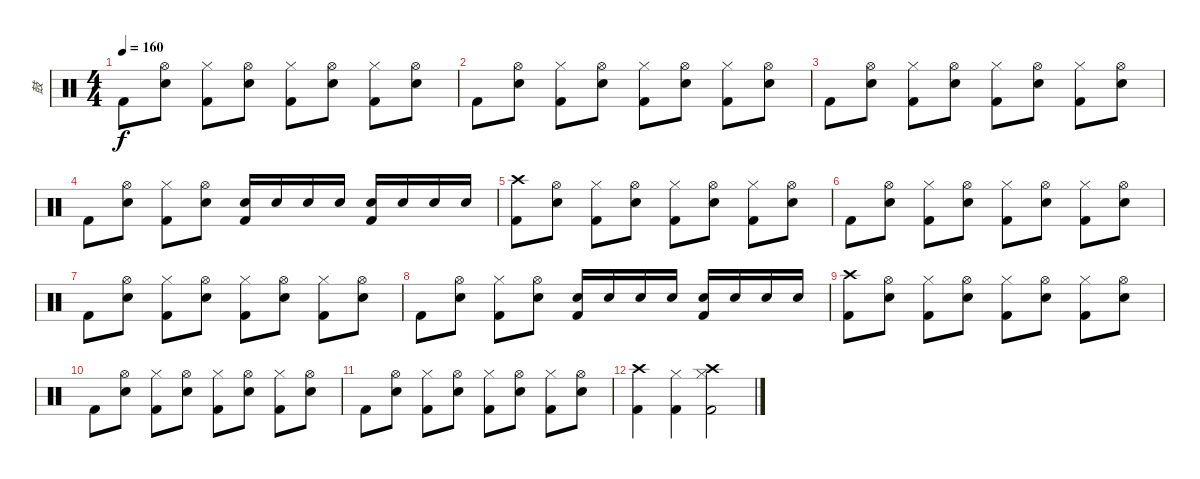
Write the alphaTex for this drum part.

\track ("鼓" "鼓") {instrument percussion}
\staff {score}
\articulation defaults
\ts (4 4)
\tempo 160
\clef neutral
\ks c "Kick (hit) 2".8{dy f}
("Hi-Hat (open)" "Electric Snare (hit)").8 ("Hi-Hat (closed)" "Kick (hit) 2").8 ("Hi-Hat (open)" "Electric Snare (hit)").8 ("Hi-Hat (closed)" "Kick (hit) 2").8 ("Hi-Hat (open)" "Electric Snare (hit)").8 ("Hi-Hat (closed)" "Kick (hit) 2").8 ("Hi-Hat (open)" "Electric Snare (hit)").8 |
"Kick (hit) 2".8 ("Hi-Hat (open)" "Electric Snare (hit)").8 ("Hi-Hat (closed)" "Kick (hit) 2").8 ("Hi-Hat (open)" "Electric Snare (hit)").8 ("Hi-Hat (closed)" "Kick (hit) 2").8 ("Hi-Hat (open)" "Electric Snare (hit)").8 ("Hi-Hat (closed)" "Kick (hit) 2").8 ("Hi-Hat (open)" "Electric Snare (hit)").8 |
"Kick (hit) 2".8 ("Hi-Hat (open)" "Electric Snare (hit)").8 ("Hi-Hat (closed)" "Kick (hit) 2").8 ("Hi-Hat (open)" "Electric Snare (hit)").8 ("Hi-Hat (closed)" "Kick (hit) 2").8 ("Hi-Hat (open)" "Electric Snare (hit)").8 ("Hi-Hat (closed)" "Kick (hit) 2").8 ("Hi-Hat (open)" "Electric Snare (hit)").8 |
"Kick (hit) 2".8 ("Hi-Hat (open)" "Electric Snare (hit)").8 ("Hi-Hat (closed)" "Kick (hit) 2").8 ("Hi-Hat (open)" "Electric Snare (hit)").8 ("Electric Snare (hit)" "Kick (hit) 2").16 "Electric Snare (hit)".16 "Electric Snare (hit)".16 "Electric Snare (hit)".16 ("Electric Snare (hit)" "Kick (hit) 2").16 "Electric Snare (hit)".16 "Electric Snare (hit)".16 "Electric Snare (hit)".16 |
("Crash high (hit)" "Kick (hit) 2").8 ("Hi-Hat (open)" "Electric Snare (hit)").8 ("Hi-Hat (closed)" "Kick (hit) 2").8 ("Hi-Hat (open)" "Electric Snare (hit)").8 ("Hi-Hat (closed)" "Kick (hit) 2").8 ("Hi-Hat (open)" "Electric Snare (hit)").8 ("Hi-Hat (closed)" "Kick (hit) 2").8 ("Hi-Hat (open)" "Electric Snare (hit)").8 |
"Kick (hit) 2".8 ("Hi-Hat (open)" "Electric Snare (hit)").8 ("Hi-Hat (closed)" "Kick (hit) 2").8 ("Hi-Hat (open)" "Electric Snare (hit)").8 ("Hi-Hat (closed)" "Kick (hit) 2").8 ("Hi-Hat (open)" "Electric Snare (hit)").8 ("Hi-Hat (closed)" "Kick (hit) 2").8 ("Hi-Hat (open)" "Electric Snare (hit)").8 |
"Kick (hit) 2".8 ("Hi-Hat (open)" "Electric Snare (hit)").8 ("Hi-Hat (closed)" "Kick (hit) 2").8 ("Hi-Hat (open)" "Electric Snare (hit)").8 ("Hi-Hat (closed)" "Kick (hit) 2").8 ("Hi-Hat (open)" "Electric Snare (hit)").8 ("Hi-Hat (closed)" "Kick (hit) 2").8 ("Hi-Hat (open)" "Electric Snare (hit)").8 |
"Kick (hit) 2".8 ("Hi-Hat (open)" "Electric Snare (hit)").8 ("Hi-Hat (closed)" "Kick (hit) 2").8 ("Hi-Hat (open)" "Electric Snare (hit)").8 ("Electric Snare (hit)" "Kick (hit) 2").16 "Electric Snare (hit)".16 "Electric Snare (hit)".16 "Electric Snare (hit)".16 ("Electric Snare (hit)" "Kick (hit) 2").16 "Electric Snare (hit)".16 "Electric Snare (hit)".16 "Electric Snare (hit)".16 |
("Crash high (hit)" "Kick (hit) 2").8 ("Hi-Hat (open)" "Electric Snare (hit)").8 ("Hi-Hat (closed)" "Kick (hit) 2").8 ("Hi-Hat (open)" "Electric Snare (hit)").8 ("Hi-Hat (closed)" "Kick (hit) 2").8 ("Hi-Hat (open)" "Electric Snare (hit)").8 ("Hi-Hat (closed)" "Kick (hit) 2").8 ("Hi-Hat (open)" "Electric Snare (hit)").8 |
"Kick (hit) 2".8 ("Hi-Hat (open)" "Electric Snare (hit)").8 ("Hi-Hat (closed)" "Kick (hit) 2").8 ("Hi-Hat (open)" "Electric Snare (hit)").8 ("Hi-Hat (closed)" "Kick (hit) 2").8 ("Hi-Hat (open)" "Electric Snare (hit)").8 ("Hi-Hat (closed)" "Kick (hit) 2").8 ("Hi-Hat (open)" "Electric Snare (hit)").8 |
"Kick (hit) 2".8 ("Hi-Hat (open)" "Electric Snare (hit)").8 ("Hi-Hat (closed)" "Kick (hit) 2").8 ("Hi-Hat (open)" "Electric Snare (hit)").8 ("Hi-Hat (closed)" "Kick (hit) 2").8 ("Hi-Hat (open)" "Electric Snare (hit)").8 ("Hi-Hat (closed)" "Kick (hit) 2").8 ("Hi-Hat (open)" "Electric Snare (hit)").8 |
("Crash high (hit)" "Kick (hit) 2").4 ("Hi-Hat (closed)" "Kick (hit) 2").4 ("Crash high (hit)" "Hi-Hat (closed)" "Kick (hit) 2").2
